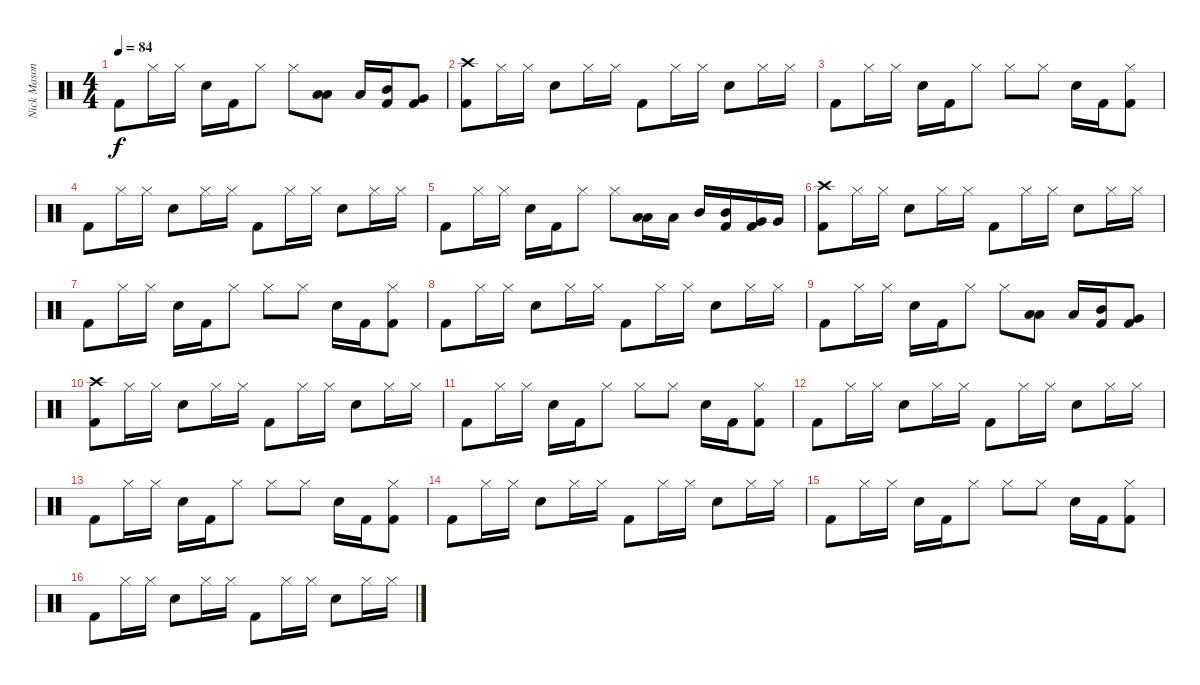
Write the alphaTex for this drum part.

\track ("Nick Mason" "Nick Mason") {instrument percussion}
\staff {score}
\articulation defaults
\ts (4 4)
\tempo 84
\clef neutral
\ks c "Kick (hit) 2".8{dy f} "Hi-Hat (closed)".16 "Hi-Hat (closed)".16 "Snare (hit) 2".16 "Kick (hit) 2".16 "Hi-Hat (closed)".8 "Hi-Hat (closed)".8
("Low Tom (hit)" "Low Tom (hit)").8 "Low Tom (hit)".16 ("Mid Tom (hit)" "Kick (hit) 2").16 ("Very Low Tom (hit)" "Kick (hit) 2").8 |
("Crash high (hit)" "Kick (hit) 2").8 "Hi-Hat (closed)".16 "Hi-Hat (closed)".16 "Snare (hit) 2".8 "Hi-Hat (closed)".16 "Hi-Hat (closed)".16 "Kick (hit) 2".8 "Hi-Hat (closed)".16 "Hi-Hat (closed)".16 "Snare (hit) 2".8 "Hi-Hat (closed)".16 "Hi-Hat (closed)".16 |
"Kick (hit) 2".8 "Hi-Hat (closed)".16 "Hi-Hat (closed)".16 "Snare (hit) 2".16 "Kick (hit) 2".16 "Hi-Hat (closed)".8 "Hi-Hat (closed)".8 "Hi-Hat (closed)".8 "Snare (hit) 2".16 "Kick (hit) 2".16 ("Hi-Hat (closed)" "Kick (hit) 2").8 |
"Kick (hit) 2".8 "Hi-Hat (closed)".16 "Hi-Hat (closed)".16 "Snare (hit) 2".8 "Hi-Hat (closed)".16 "Hi-Hat (closed)".16 "Kick (hit) 2".8 "Hi-Hat (closed)".16 "Hi-Hat (closed)".16 "Snare (hit) 2".8 "Hi-Hat (closed)".16 "Hi-Hat (closed)".16 |
"Kick (hit) 2".8 "Hi-Hat (closed)".16 "Hi-Hat (closed)".16 "Snare (hit) 2".16 "Kick (hit) 2".16 "Hi-Hat (closed)".8 "Hi-Hat (closed)".8 ("Low Tom (hit)" "Low Tom (hit)").16 "Low Tom (hit)".16 "Mid Tom (hit)".16 ("Mid Tom (hit)" "Kick (hit) 2").16 ("Very Low Tom (hit)" "Kick (hit) 2").16 "Very Low Tom (hit)".16 |
("Crash high (hit)" "Kick (hit) 2").8 "Hi-Hat (closed)".16 "Hi-Hat (closed)".16 "Snare (hit) 2".8 "Hi-Hat (closed)".16 "Hi-Hat (closed)".16 "Kick (hit) 2".8 "Hi-Hat (closed)".16 "Hi-Hat (closed)".16 "Snare (hit) 2".8 "Hi-Hat (closed)".16 "Hi-Hat (closed)".16 |
"Kick (hit) 2".8 "Hi-Hat (closed)".16 "Hi-Hat (closed)".16 "Snare (hit) 2".16 "Kick (hit) 2".16 "Hi-Hat (closed)".8 "Hi-Hat (closed)".8 "Hi-Hat (closed)".8 "Snare (hit) 2".16 "Kick (hit) 2".16 ("Hi-Hat (closed)" "Kick (hit) 2").8 |
"Kick (hit) 2".8 "Hi-Hat (closed)".16 "Hi-Hat (closed)".16 "Snare (hit) 2".8 "Hi-Hat (closed)".16 "Hi-Hat (closed)".16 "Kick (hit) 2".8 "Hi-Hat (closed)".16 "Hi-Hat (closed)".16 "Snare (hit) 2".8 "Hi-Hat (closed)".16 "Hi-Hat (closed)".16 |
"Kick (hit) 2".8 "Hi-Hat (closed)".16 "Hi-Hat (closed)".16 "Snare (hit) 2".16 "Kick (hit) 2".16 "Hi-Hat (closed)".8 "Hi-Hat (closed)".8 ("Low Tom (hit)" "Low Tom (hit)").8 "Low Tom (hit)".16 ("Mid Tom (hit)" "Kick (hit) 2").16 ("Very Low Tom (hit)" "Kick (hit) 2").8 |
("Crash high (hit)" "Kick (hit) 2").8 "Hi-Hat (closed)".16 "Hi-Hat (closed)".16 "Snare (hit) 2".8 "Hi-Hat (closed)".16 "Hi-Hat (closed)".16 "Kick (hit) 2".8 "Hi-Hat (closed)".16 "Hi-Hat (closed)".16 "Snare (hit) 2".8 "Hi-Hat (closed)".16 "Hi-Hat (closed)".16 |
"Kick (hit) 2".8 "Hi-Hat (closed)".16 "Hi-Hat (closed)".16 "Snare (hit) 2".16 "Kick (hit) 2".16 "Hi-Hat (closed)".8 "Hi-Hat (closed)".8 "Hi-Hat (closed)".8 "Snare (hit) 2".16 "Kick (hit) 2".16 ("Hi-Hat (closed)" "Kick (hit) 2").8 |
"Kick (hit) 2".8 "Hi-Hat (closed)".16 "Hi-Hat (closed)".16 "Snare (hit) 2".8 "Hi-Hat (closed)".16 "Hi-Hat (closed)".16 "Kick (hit) 2".8 "Hi-Hat (closed)".16 "Hi-Hat (closed)".16 "Snare (hit) 2".8 "Hi-Hat (closed)".16 "Hi-Hat (closed)".16 |
"Kick (hit) 2".8 "Hi-Hat (closed)".16 "Hi-Hat (closed)".16 "Snare (hit) 2".16 "Kick (hit) 2".16 "Hi-Hat (closed)".8 "Hi-Hat (closed)".8 "Hi-Hat (closed)".8 "Snare (hit) 2".16 "Kick (hit) 2".16 ("Hi-Hat (closed)" "Kick (hit) 2").8 |
"Kick (hit) 2".8 "Hi-Hat (closed)".16 "Hi-Hat (closed)".16 "Snare (hit) 2".8 "Hi-Hat (closed)".16 "Hi-Hat (closed)".16 "Kick (hit) 2".8 "Hi-Hat (closed)".16 "Hi-Hat (closed)".16 "Snare (hit) 2".8 "Hi-Hat (closed)".16 "Hi-Hat (closed)".16 |
"Kick (hit) 2".8 "Hi-Hat (closed)".16 "Hi-Hat (closed)".16 "Snare (hit) 2".16 "Kick (hit) 2".16 "Hi-Hat (closed)".8 "Hi-Hat (closed)".8 "Hi-Hat (closed)".8 "Snare (hit) 2".16 "Kick (hit) 2".16 ("Hi-Hat (closed)" "Kick (hit) 2").8 |
"Kick (hit) 2".8 "Hi-Hat (closed)".16 "Hi-Hat (closed)".16 "Snare (hit) 2".8 "Hi-Hat (closed)".16 "Hi-Hat (closed)".16 "Kick (hit) 2".8 "Hi-Hat (closed)".16 "Hi-Hat (closed)".16 "Snare (hit) 2".8 "Hi-Hat (closed)".16 "Hi-Hat (closed)".16
